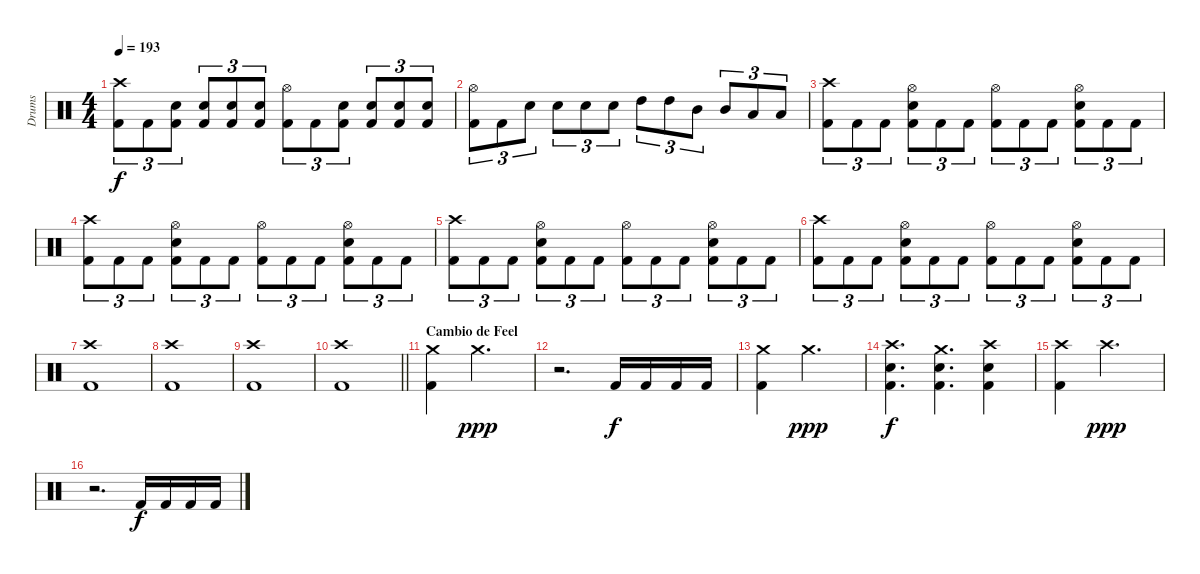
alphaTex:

\track ("Drums" "Drums") {instrument percussion}
\staff {score}
\articulation defaults
\ts (4 4)
\tempo 193
\clef neutral
\ks c
("Crash high (hit)" "Kick (hit) 2").8{tu (3 2) dy f} "Kick (hit) 2".8{tu (3 2)} ("Electric Snare (hit)" "Kick (hit) 2").8{tu (3 2)} ("Electric Snare (hit)" "Kick (hit) 2").8{tu (3 2)} ("Electric Snare (hit)" "Kick (hit) 2").8{tu (3 2)} ("Electric Snare (hit)" "Kick (hit) 2").8{tu (3 2)} ("Hi-Hat (open)" "Kick (hit) 2").8{tu (3 2)} "Kick (hit) 2".8{tu (3 2)} ("Electric Snare (hit)" "Kick (hit) 2").8{tu (3 2)} ("Electric Snare (hit)" "Kick (hit) 2").8{tu (3 2)} ("Electric Snare (hit)" "Kick (hit) 2").8{tu (3 2)} ("Electric Snare (hit)" "Kick (hit) 2").8{tu (3 2)} |
("Hi-Hat (open)" "Kick (hit) 2").8{tu (3 2)} "Kick (hit) 2".8{tu (3 2)} "Electric Snare (hit)".8{tu (3 2)} "Electric Snare (hit)".8{tu (3 2)} "Electric Snare (hit)".8{tu (3 2)} "Electric Snare (hit)".8{tu (3 2)} "High Tom (hit)".8{tu (3 2)} "High Tom (hit)".8{tu (3 2)} "Mid Tom (hit)".8{tu (3 2)} "Mid Tom (hit)".8{tu (3 2)} "Low Tom (hit)".8{tu (3 2)} "Low Tom (hit)".8{tu (3 2)} |
("Crash high (hit)" "Kick (hit) 2").8{tu (3 2)} "Kick (hit) 2".8{tu (3 2)} "Kick (hit) 2".8{tu (3 2)} ("Hi-Hat (open)" "Electric Snare (hit)" "Kick (hit) 2").8{tu (3 2)} "Kick (hit) 2".8{tu (3 2)} "Kick (hit) 2".8{tu (3 2)} ("Hi-Hat (open)" "Kick (hit) 2").8{tu (3 2)} "Kick (hit) 2".8{tu (3 2)} "Kick (hit) 2".8{tu (3 2)} ("Hi-Hat (open)" "Electric Snare (hit)" "Kick (hit) 2").8{tu (3 2)} "Kick (hit) 2".8{tu (3 2)} "Kick (hit) 2".8{tu (3 2)} |
("Crash high (hit)" "Kick (hit) 2").8{tu (3 2)} "Kick (hit) 2".8{tu (3 2)} "Kick (hit) 2".8{tu (3 2)} ("Hi-Hat (open)" "Electric Snare (hit)" "Kick (hit) 2").8{tu (3 2)} "Kick (hit) 2".8{tu (3 2)} "Kick (hit) 2".8{tu (3 2)} ("Hi-Hat (open)" "Kick (hit) 2").8{tu (3 2)} "Kick (hit) 2".8{tu (3 2)} "Kick (hit) 2".8{tu (3 2)} ("Hi-Hat (open)" "Electric Snare (hit)" "Kick (hit) 2").8{tu (3 2)} "Kick (hit) 2".8{tu (3 2)} "Kick (hit) 2".8{tu (3 2)} |
("Crash high (hit)" "Kick (hit) 2").8{tu (3 2)} "Kick (hit) 2".8{tu (3 2)} "Kick (hit) 2".8{tu (3 2)} ("Hi-Hat (open)" "Electric Snare (hit)" "Kick (hit) 2").8{tu (3 2)} "Kick (hit) 2".8{tu (3 2)} "Kick (hit) 2".8{tu (3 2)} ("Hi-Hat (open)" "Kick (hit) 2").8{tu (3 2)} "Kick (hit) 2".8{tu (3 2)} "Kick (hit) 2".8{tu (3 2)} ("Hi-Hat (open)" "Electric Snare (hit)" "Kick (hit) 2").8{tu (3 2)} "Kick (hit) 2".8{tu (3 2)} "Kick (hit) 2".8{tu (3 2)} |
("Crash high (hit)" "Kick (hit) 2").8{tu (3 2)} "Kick (hit) 2".8{tu (3 2)} "Kick (hit) 2".8{tu (3 2)} ("Hi-Hat (open)" "Electric Snare (hit)" "Kick (hit) 2").8{tu (3 2)} "Kick (hit) 2".8{tu (3 2)} "Kick (hit) 2".8{tu (3 2)} ("Hi-Hat (open)" "Kick (hit) 2").8{tu (3 2)} "Kick (hit) 2".8{tu (3 2)} "Kick (hit) 2".8{tu (3 2)} ("Hi-Hat (open)" "Electric Snare (hit)" "Kick (hit) 2").8{tu (3 2)} "Kick (hit) 2".8{tu (3 2)} "Kick (hit) 2".8{tu (3 2)} |
("Crash high (hit)" "Kick (hit) 2").1 |
("Crash high (hit)" "Kick (hit) 2").1 |
("Crash high (hit)" "Kick (hit) 2").1 |
\barLineRight lightlight
("Crash high (hit)" "Kick (hit) 2").1 |
\section ("" "Cambio de Feel")
("Crash medium (hit)" "Kick (hit) 2").4 "Crash medium (hit)".2{d dy ppp} |
r.2{d} "Kick (hit) 2".16{dy f} "Kick (hit) 2".16 "Kick (hit) 2".16 "Kick (hit) 2".16 |
("Crash medium (hit)" "Kick (hit) 2").4 "Crash medium (hit)".2{d dy ppp} |
("Crash high (hit)" "Electric Snare (hit)" "Kick (hit) 2").4{d dy f} ("Crash medium (hit)" "Electric Snare (hit)" "Kick (hit) 2").4{d} ("Crash high (hit)" "Electric Snare (hit)" "Kick (hit) 2").4 |
("Crash high (hit)" "Kick (hit) 2").4 "Crash high (hit)".2{d dy ppp} |
r.2{d} "Kick (hit) 2".16{dy f} "Kick (hit) 2".16 "Kick (hit) 2".16 "Kick (hit) 2".16
